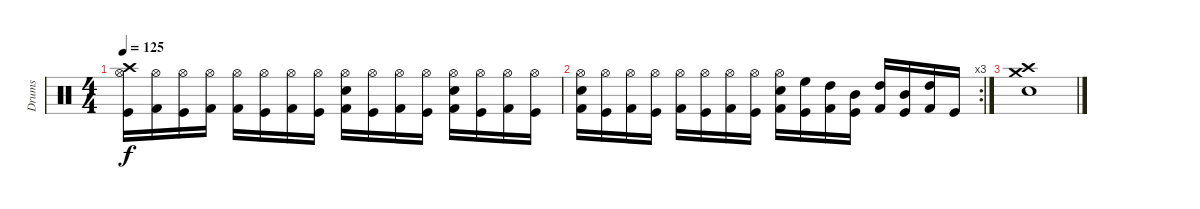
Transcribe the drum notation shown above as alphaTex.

\track ("Drums" "Drums") {instrument percussion}
\staff {score}
\articulation defaults
\ts (4 4)
\tempo 125
\clef neutral
\ks c
("Kick (hit)" "Hi-Hat (open)" "Crash high (hit)").16{dy f} ("Kick (hit) 2" "Hi-Hat (open)").16 ("Kick (hit)" "Hi-Hat (open)").16 ("Kick (hit) 2" "Hi-Hat (open)").16 ("Kick (hit) 2" "Hi-Hat (open)").16 ("Kick (hit)" "Hi-Hat (open)").16 ("Kick (hit) 2" "Hi-Hat (open)").16 ("Kick (hit)" "Hi-Hat (open)").16 ("Kick (hit) 2" "Hi-Hat (open)" "Electric Snare (hit)").16 ("Kick (hit)" "Hi-Hat (open)").16 ("Kick (hit) 2" "Hi-Hat (open)").16 ("Kick (hit)" "Hi-Hat (open)").16 ("Kick (hit) 2" "Hi-Hat (open)" "Electric Snare (hit)").16 ("Kick (hit)" "Hi-Hat (open)").16 ("Kick (hit) 2" "Hi-Hat (open)").16 ("Kick (hit)" "Hi-Hat (open)").16 |
\rc 3
("Kick (hit) 2" "Hi-Hat (open)" "Electric Snare (hit)").16 ("Kick (hit)" "Hi-Hat (open)").16 ("Kick (hit) 2" "Hi-Hat (open)").16 ("Kick (hit)" "Hi-Hat (open)").16 ("Kick (hit) 2" "Hi-Hat (open)").16 ("Kick (hit)" "Hi-Hat (open)").16 ("Kick (hit) 2" "Hi-Hat (open)").16 ("Kick (hit)" "Hi-Hat (open)").16 ("Kick (hit) 2" "Hi-Hat (open)" "Electric Snare (hit)").16 ("Kick (hit)" "High Floor Tom (hit)").16 ("Kick (hit) 2" "High Tom (hit)").16 ("Kick (hit)" "Mid Tom (hit)").16 ("Kick (hit) 2" "High Tom (hit)").16 ("Kick (hit)" "Mid Tom (hit)").16 ("Kick (hit) 2" "High Tom (hit)").16 "Kick (hit)".16 |
("Crash medium (hit)" "Crash high (hit)" "Electric Snare (hit)").1
